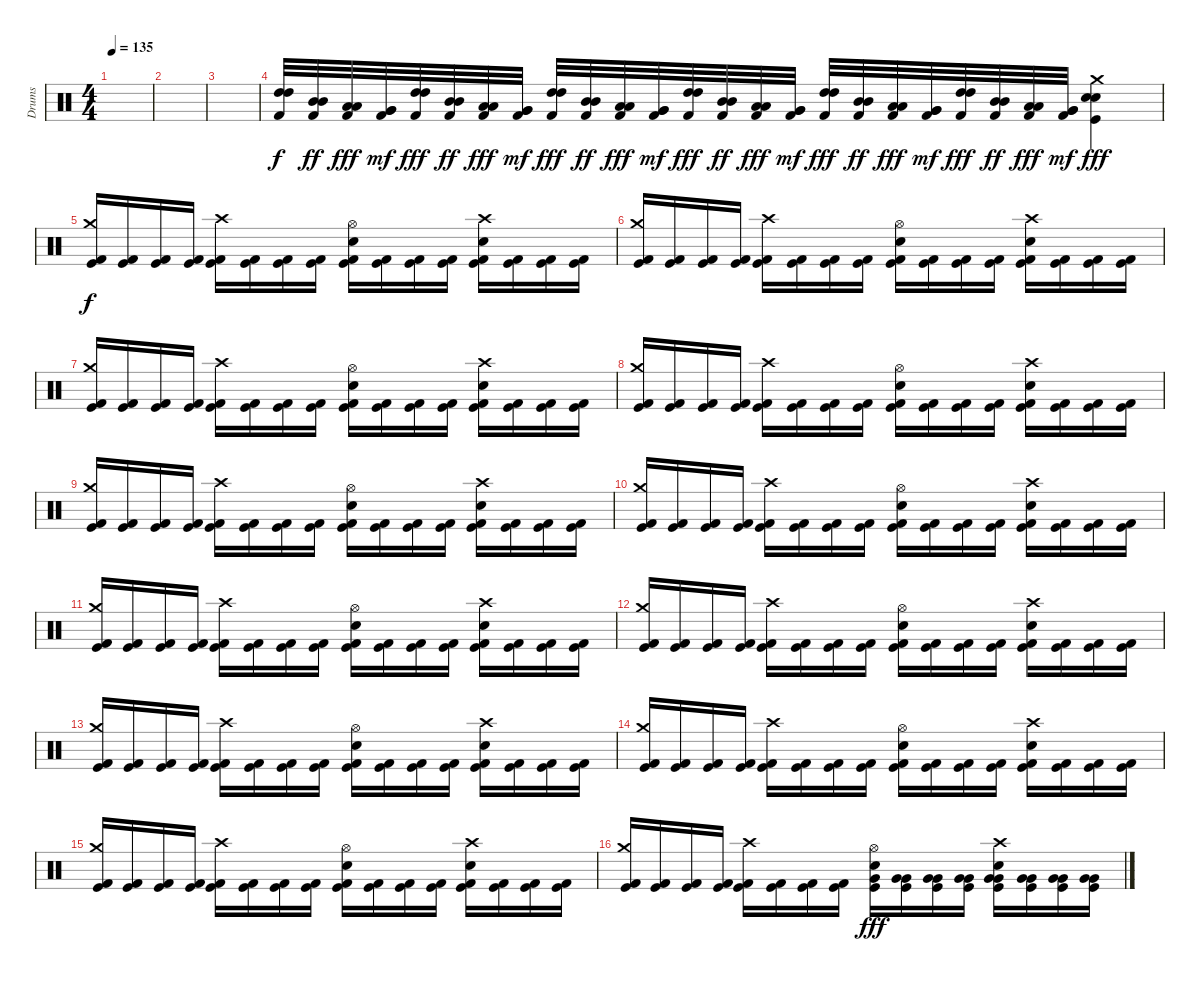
\track ("Drums" "Drums") {instrument percussion}
\staff {score}
\articulation defaults
\ts (4 4)
\tempo 135
\clef neutral
\ks c
|
|
|
("Kick (hit) 2" "High Tom (hit)" "High Tom (hit)").32 ("Kick (hit) 2" "Mid Tom (hit)" "Mid Tom (hit)").32{dy ff} ("Kick (hit) 2" "Low Tom (hit)" "Low Tom (hit)").32{dy fff} ("Kick (hit) 2" "Very Low Tom (hit)" "Very Low Tom (hit)").32{dy mf} ("Kick (hit) 2" "High Tom (hit)" "High Tom (hit)").32{dy fff} ("Kick (hit) 2" "Mid Tom (hit)" "Mid Tom (hit)").32{dy ff} ("Kick (hit) 2" "Low Tom (hit)" "Low Tom (hit)").32{dy fff} ("Kick (hit) 2" "Very Low Tom (hit)" "Very Low Tom (hit)").32{dy mf} ("Kick (hit) 2" "High Tom (hit)" "High Tom (hit)").32{dy fff} ("Kick (hit) 2" "Mid Tom (hit)" "Mid Tom (hit)").32{dy ff} ("Kick (hit) 2" "Low Tom (hit)" "Low Tom (hit)").32{dy fff} ("Kick (hit) 2" "Very Low Tom (hit)" "Very Low Tom (hit)").32{dy mf} ("Kick (hit) 2" "High Tom (hit)" "High Tom (hit)").32{dy fff} ("Kick (hit) 2" "Mid Tom (hit)" "Mid Tom (hit)").32{dy ff} ("Kick (hit) 2" "Low Tom (hit)" "Low Tom (hit)").32{dy fff} ("Kick (hit) 2" "Very Low Tom (hit)" "Very Low Tom (hit)").32{dy mf} ("Kick (hit) 2" "High Tom (hit)" "High Tom (hit)").32{dy fff} ("Kick (hit) 2" "Mid Tom (hit)" "Mid Tom (hit)").32{dy ff} ("Kick (hit) 2" "Low Tom (hit)" "Low Tom (hit)").32{dy fff} ("Kick (hit) 2" "Very Low Tom (hit)" "Very Low Tom (hit)").32{dy mf} ("Kick (hit) 2" "High Tom (hit)" "High Tom (hit)").32{dy fff} ("Kick (hit) 2" "Mid Tom (hit)" "Mid Tom (hit)").32{dy ff} ("Kick (hit) 2" "Low Tom (hit)" "Low Tom (hit)").32{dy fff} ("Kick (hit) 2" "Very Low Tom (hit)" "Very Low Tom (hit)").32{dy mf} ("Crash medium (hit)" "Snare (hit) 2" "Snare (hit) 2" "Kick (hit)").4{dy fff} |
("Kick (hit) 2" "Kick (hit)" "Crash medium (hit)").16{dy f} ("Kick (hit) 2" "Kick (hit)").16 ("Kick (hit) 2" "Kick (hit)").16 ("Kick (hit) 2" "Kick (hit)").16 ("Kick (hit) 2" "Kick (hit)" "Crash high (hit)").16 ("Kick (hit) 2" "Kick (hit)").16 ("Kick (hit) 2" "Kick (hit)").16 ("Kick (hit) 2" "Kick (hit)").16 ("Kick (hit) 2" "Kick (hit)" "Snare (hit) 2" "Hi-Hat (open)").16 ("Kick (hit) 2" "Kick (hit)").16 ("Kick (hit) 2" "Kick (hit)").16 ("Kick (hit) 2" "Kick (hit)").16 ("Kick (hit) 2" "Kick (hit)" "Snare (hit) 2" "Crash high (hit)").16 ("Kick (hit) 2" "Kick (hit)").16 ("Kick (hit) 2" "Kick (hit)").16 ("Kick (hit) 2" "Kick (hit)").16 |
("Kick (hit) 2" "Kick (hit)" "Crash medium (hit)").16 ("Kick (hit) 2" "Kick (hit)").16 ("Kick (hit) 2" "Kick (hit)").16 ("Kick (hit) 2" "Kick (hit)").16 ("Kick (hit) 2" "Kick (hit)" "Crash high (hit)").16 ("Kick (hit) 2" "Kick (hit)").16 ("Kick (hit) 2" "Kick (hit)").16 ("Kick (hit) 2" "Kick (hit)").16 ("Kick (hit) 2" "Kick (hit)" "Snare (hit) 2" "Hi-Hat (open)").16 ("Kick (hit) 2" "Kick (hit)").16 ("Kick (hit) 2" "Kick (hit)").16 ("Kick (hit) 2" "Kick (hit)").16 ("Kick (hit) 2" "Kick (hit)" "Snare (hit) 2" "Crash high (hit)").16 ("Kick (hit) 2" "Kick (hit)").16 ("Kick (hit) 2" "Kick (hit)").16 ("Kick (hit) 2" "Kick (hit)").16 |
("Kick (hit) 2" "Kick (hit)" "Crash medium (hit)").16 ("Kick (hit) 2" "Kick (hit)").16 ("Kick (hit) 2" "Kick (hit)").16 ("Kick (hit) 2" "Kick (hit)").16 ("Kick (hit) 2" "Kick (hit)" "Crash high (hit)").16 ("Kick (hit) 2" "Kick (hit)").16 ("Kick (hit) 2" "Kick (hit)").16 ("Kick (hit) 2" "Kick (hit)").16 ("Kick (hit) 2" "Kick (hit)" "Snare (hit) 2" "Hi-Hat (open)").16 ("Kick (hit) 2" "Kick (hit)").16 ("Kick (hit) 2" "Kick (hit)").16 ("Kick (hit) 2" "Kick (hit)").16 ("Kick (hit) 2" "Kick (hit)" "Snare (hit) 2" "Crash high (hit)").16 ("Kick (hit) 2" "Kick (hit)").16 ("Kick (hit) 2" "Kick (hit)").16 ("Kick (hit) 2" "Kick (hit)").16 |
("Kick (hit) 2" "Kick (hit)" "Crash medium (hit)").16 ("Kick (hit) 2" "Kick (hit)").16 ("Kick (hit) 2" "Kick (hit)").16 ("Kick (hit) 2" "Kick (hit)").16 ("Kick (hit) 2" "Kick (hit)" "Crash high (hit)").16 ("Kick (hit) 2" "Kick (hit)").16 ("Kick (hit) 2" "Kick (hit)").16 ("Kick (hit) 2" "Kick (hit)").16 ("Kick (hit) 2" "Kick (hit)" "Snare (hit) 2" "Hi-Hat (open)").16 ("Kick (hit) 2" "Kick (hit)").16 ("Kick (hit) 2" "Kick (hit)").16 ("Kick (hit) 2" "Kick (hit)").16 ("Kick (hit) 2" "Kick (hit)" "Snare (hit) 2" "Crash high (hit)").16 ("Kick (hit) 2" "Kick (hit)").16 ("Kick (hit) 2" "Kick (hit)").16 ("Kick (hit) 2" "Kick (hit)").16 |
("Kick (hit) 2" "Kick (hit)" "Crash medium (hit)").16 ("Kick (hit) 2" "Kick (hit)").16 ("Kick (hit) 2" "Kick (hit)").16 ("Kick (hit) 2" "Kick (hit)").16 ("Kick (hit) 2" "Kick (hit)" "Crash high (hit)").16 ("Kick (hit) 2" "Kick (hit)").16 ("Kick (hit) 2" "Kick (hit)").16 ("Kick (hit) 2" "Kick (hit)").16 ("Kick (hit) 2" "Kick (hit)" "Snare (hit) 2" "Hi-Hat (open)").16 ("Kick (hit) 2" "Kick (hit)").16 ("Kick (hit) 2" "Kick (hit)").16 ("Kick (hit) 2" "Kick (hit)").16 ("Kick (hit) 2" "Kick (hit)" "Snare (hit) 2" "Crash high (hit)").16 ("Kick (hit) 2" "Kick (hit)").16 ("Kick (hit) 2" "Kick (hit)").16 ("Kick (hit) 2" "Kick (hit)").16 |
("Kick (hit) 2" "Kick (hit)" "Crash medium (hit)").16 ("Kick (hit) 2" "Kick (hit)").16 ("Kick (hit) 2" "Kick (hit)").16 ("Kick (hit) 2" "Kick (hit)").16 ("Kick (hit) 2" "Kick (hit)" "Crash high (hit)").16 ("Kick (hit) 2" "Kick (hit)").16 ("Kick (hit) 2" "Kick (hit)").16 ("Kick (hit) 2" "Kick (hit)").16 ("Kick (hit) 2" "Kick (hit)" "Snare (hit) 2" "Hi-Hat (open)").16 ("Kick (hit) 2" "Kick (hit)").16 ("Kick (hit) 2" "Kick (hit)").16 ("Kick (hit) 2" "Kick (hit)").16 ("Kick (hit) 2" "Kick (hit)" "Snare (hit) 2" "Crash high (hit)").16 ("Kick (hit) 2" "Kick (hit)").16 ("Kick (hit) 2" "Kick (hit)").16 ("Kick (hit) 2" "Kick (hit)").16 |
("Kick (hit) 2" "Kick (hit)" "Crash medium (hit)").16 ("Kick (hit) 2" "Kick (hit)").16 ("Kick (hit) 2" "Kick (hit)").16 ("Kick (hit) 2" "Kick (hit)").16 ("Kick (hit) 2" "Kick (hit)" "Crash high (hit)").16 ("Kick (hit) 2" "Kick (hit)").16 ("Kick (hit) 2" "Kick (hit)").16 ("Kick (hit) 2" "Kick (hit)").16 ("Kick (hit) 2" "Kick (hit)" "Snare (hit) 2" "Hi-Hat (open)").16 ("Kick (hit) 2" "Kick (hit)").16 ("Kick (hit) 2" "Kick (hit)").16 ("Kick (hit) 2" "Kick (hit)").16 ("Kick (hit) 2" "Kick (hit)" "Snare (hit) 2" "Crash high (hit)").16 ("Kick (hit) 2" "Kick (hit)").16 ("Kick (hit) 2" "Kick (hit)").16 ("Kick (hit) 2" "Kick (hit)").16 |
("Kick (hit) 2" "Kick (hit)" "Crash medium (hit)").16 ("Kick (hit) 2" "Kick (hit)").16 ("Kick (hit) 2" "Kick (hit)").16 ("Kick (hit) 2" "Kick (hit)").16 ("Kick (hit) 2" "Kick (hit)" "Crash high (hit)").16 ("Kick (hit) 2" "Kick (hit)").16 ("Kick (hit) 2" "Kick (hit)").16 ("Kick (hit) 2" "Kick (hit)").16 ("Kick (hit) 2" "Kick (hit)" "Snare (hit) 2" "Hi-Hat (open)").16 ("Kick (hit) 2" "Kick (hit)").16 ("Kick (hit) 2" "Kick (hit)").16 ("Kick (hit) 2" "Kick (hit)").16 ("Kick (hit) 2" "Kick (hit)" "Snare (hit) 2" "Crash high (hit)").16 ("Kick (hit) 2" "Kick (hit)").16 ("Kick (hit) 2" "Kick (hit)").16 ("Kick (hit) 2" "Kick (hit)").16 |
("Kick (hit) 2" "Kick (hit)" "Crash medium (hit)").16 ("Kick (hit) 2" "Kick (hit)").16 ("Kick (hit) 2" "Kick (hit)").16 ("Kick (hit) 2" "Kick (hit)").16 ("Kick (hit) 2" "Kick (hit)" "Crash high (hit)").16 ("Kick (hit) 2" "Kick (hit)").16 ("Kick (hit) 2" "Kick (hit)").16 ("Kick (hit) 2" "Kick (hit)").16 ("Kick (hit) 2" "Kick (hit)" "Snare (hit) 2" "Hi-Hat (open)").16 ("Kick (hit) 2" "Kick (hit)").16 ("Kick (hit) 2" "Kick (hit)").16 ("Kick (hit) 2" "Kick (hit)").16 ("Kick (hit) 2" "Kick (hit)" "Snare (hit) 2" "Crash high (hit)").16 ("Kick (hit) 2" "Kick (hit)").16 ("Kick (hit) 2" "Kick (hit)").16 ("Kick (hit) 2" "Kick (hit)").16 |
("Kick (hit) 2" "Kick (hit)" "Crash medium (hit)").16 ("Kick (hit) 2" "Kick (hit)").16 ("Kick (hit) 2" "Kick (hit)").16 ("Kick (hit) 2" "Kick (hit)").16 ("Kick (hit) 2" "Kick (hit)" "Crash high (hit)").16 ("Kick (hit) 2" "Kick (hit)").16 ("Kick (hit) 2" "Kick (hit)").16 ("Kick (hit) 2" "Kick (hit)").16 ("Kick (hit) 2" "Kick (hit)" "Snare (hit) 2" "Hi-Hat (open)").16 ("Kick (hit) 2" "Kick (hit)").16 ("Kick (hit) 2" "Kick (hit)").16 ("Kick (hit) 2" "Kick (hit)").16 ("Kick (hit) 2" "Kick (hit)" "Snare (hit) 2" "Crash high (hit)").16 ("Kick (hit) 2" "Kick (hit)").16 ("Kick (hit) 2" "Kick (hit)").16 ("Kick (hit) 2" "Kick (hit)").16 |
("Kick (hit) 2" "Kick (hit)" "Crash medium (hit)").16 ("Kick (hit) 2" "Kick (hit)").16 ("Kick (hit) 2" "Kick (hit)").16 ("Kick (hit) 2" "Kick (hit)").16 ("Kick (hit) 2" "Kick (hit)" "Crash high (hit)").16 ("Kick (hit) 2" "Kick (hit)").16 ("Kick (hit) 2" "Kick (hit)").16 ("Kick (hit) 2" "Kick (hit)").16 ("Kick (hit) 2" "Kick (hit)" "Snare (hit) 2" "Hi-Hat (open)").16 ("Kick (hit) 2" "Kick (hit)").16 ("Kick (hit) 2" "Kick (hit)").16 ("Kick (hit) 2" "Kick (hit)").16 ("Kick (hit) 2" "Kick (hit)" "Snare (hit) 2" "Crash high (hit)").16 ("Kick (hit) 2" "Kick (hit)").16 ("Kick (hit) 2" "Kick (hit)").16 ("Kick (hit) 2" "Kick (hit)").16 |
("Kick (hit) 2" "Kick (hit)" "Crash medium (hit)").16 ("Kick (hit) 2" "Kick (hit)").16 ("Kick (hit) 2" "Kick (hit)").16 ("Kick (hit) 2" "Kick (hit)").16 ("Kick (hit) 2" "Kick (hit)" "Crash high (hit)").16 ("Kick (hit) 2" "Kick (hit)").16 ("Kick (hit) 2" "Kick (hit)").16 ("Kick (hit) 2" "Kick (hit)").16 ("Very Low Tom (hit)" "Kick (hit)" "Snare (hit) 2" "Hi-Hat (open)").16{dy fff} ("Very Low Tom (hit)" "Very Low Tom (hit)" "Kick (hit)").16 ("Very Low Tom (hit)" "Very Low Tom (hit)" "Kick (hit)").16 ("Very Low Tom (hit)" "Very Low Tom (hit)" "Kick (hit)").16 ("Very Low Tom (hit)" "Very Low Tom (hit)" "Kick (hit)" "Snare (hit) 2" "Crash high (hit)").16 ("Very Low Tom (hit)" "Very Low Tom (hit)" "Kick (hit)").16 ("Very Low Tom (hit)" "Very Low Tom (hit)" "Kick (hit)").16 ("Very Low Tom (hit)" "Very Low Tom (hit)" "Kick (hit)").16
